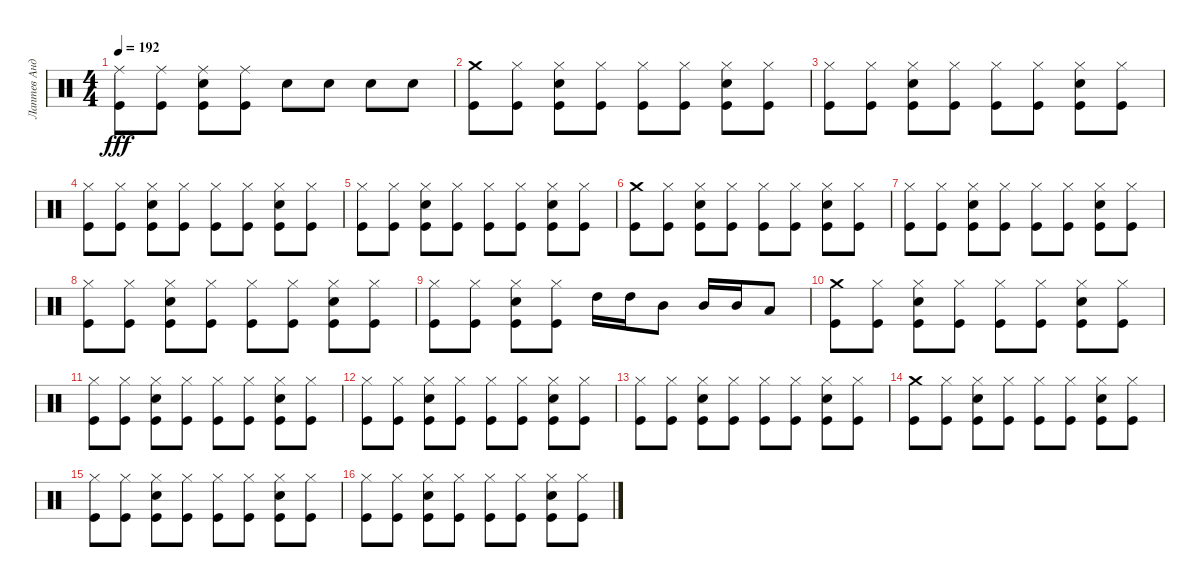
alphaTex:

\track ("Лаптев Андрей" "Лаптев Анд") {instrument percussion}
\staff {score}
\articulation defaults
\ts (4 4)
\tempo 192
\clef neutral
\ks c
("Kick (hit)" "Ride (middle)").8{dy fff} ("Kick (hit)" "Ride (middle)").8 ("Ride (middle)" "Electric Snare (hit)" "Kick (hit)").8 ("Ride (middle)" "Kick (hit)").8 "Electric Snare (hit)".8 "Electric Snare (hit)".8 "Electric Snare (hit)".8 "Electric Snare (hit)".8 |
("Kick (hit)" "Crash medium (hit)").8 ("Kick (hit)" "Hi-Hat (closed)").8 ("Electric Snare (hit)" "Hi-Hat (closed)" "Kick (hit)").8 ("Kick (hit)" "Hi-Hat (closed)").8 ("Hi-Hat (closed)" "Kick (hit)").8 ("Hi-Hat (closed)" "Kick (hit)").8 ("Kick (hit)" "Hi-Hat (closed)" "Electric Snare (hit)").8 ("Hi-Hat (closed)" "Kick (hit)").8 |
("Hi-Hat (closed)" "Kick (hit)").8 ("Kick (hit)" "Hi-Hat (closed)").8 ("Electric Snare (hit)" "Hi-Hat (closed)" "Kick (hit)").8 ("Hi-Hat (closed)" "Kick (hit)").8 ("Hi-Hat (closed)" "Kick (hit)").8 ("Hi-Hat (closed)" "Kick (hit)").8 ("Electric Snare (hit)" "Hi-Hat (closed)" "Kick (hit)").8 ("Kick (hit)" "Hi-Hat (closed)").8 |
("Kick (hit)" "Hi-Hat (closed)").8 ("Kick (hit)" "Hi-Hat (closed)").8 ("Electric Snare (hit)" "Hi-Hat (closed)" "Kick (hit)").8 ("Hi-Hat (closed)" "Kick (hit)").8 ("Hi-Hat (closed)" "Kick (hit)").8 ("Kick (hit)" "Hi-Hat (closed)").8 ("Electric Snare (hit)" "Hi-Hat (closed)" "Kick (hit)").8 ("Kick (hit)" "Hi-Hat (closed)").8 |
("Kick (hit)" "Hi-Hat (closed)").8 ("Hi-Hat (closed)" "Kick (hit)").8 ("Hi-Hat (closed)" "Electric Snare (hit)" "Kick (hit)").8 ("Hi-Hat (closed)" "Kick (hit)").8 ("Kick (hit)" "Hi-Hat (closed)").8 ("Hi-Hat (closed)" "Kick (hit)").8 ("Hi-Hat (closed)" "Kick (hit)" "Electric Snare (hit)").8 ("Hi-Hat (closed)" "Kick (hit)").8 |
("Crash medium (hit)" "Kick (hit)").8 ("Hi-Hat (closed)" "Kick (hit)").8 ("Kick (hit)" "Hi-Hat (closed)" "Electric Snare (hit)").8 ("Kick (hit)" "Hi-Hat (closed)").8 ("Kick (hit)" "Hi-Hat (closed)").8 ("Hi-Hat (closed)" "Kick (hit)").8 ("Electric Snare (hit)" "Hi-Hat (closed)" "Kick (hit)").8 ("Kick (hit)" "Hi-Hat (closed)").8 |
("Hi-Hat (closed)" "Kick (hit)").8 ("Hi-Hat (closed)" "Kick (hit)").8 ("Hi-Hat (closed)" "Kick (hit)" "Electric Snare (hit)").8 ("Kick (hit)" "Hi-Hat (closed)").8 ("Hi-Hat (closed)" "Kick (hit)").8 ("Kick (hit)" "Hi-Hat (closed)").8 ("Hi-Hat (closed)" "Electric Snare (hit)" "Kick (hit)").8 ("Kick (hit)" "Hi-Hat (closed)").8 |
("Hi-Hat (closed)" "Kick (hit)").8 ("Hi-Hat (closed)" "Kick (hit)").8 ("Electric Snare (hit)" "Kick (hit)" "Hi-Hat (closed)").8 ("Hi-Hat (closed)" "Kick (hit)").8 ("Hi-Hat (closed)" "Kick (hit)").8 ("Kick (hit)" "Hi-Hat (closed)").8 ("Kick (hit)" "Hi-Hat (closed)" "Electric Snare (hit)").8 ("Kick (hit)" "Hi-Hat (closed)").8 |
("Hi-Hat (closed)" "Kick (hit)").8 ("Kick (hit)" "Hi-Hat (closed)").8 ("Hi-Hat (closed)" "Electric Snare (hit)" "Kick (hit)").8 ("Kick (hit)" "Hi-Hat (closed)").8 "High Tom (hit)".16 "High Tom (hit)".16 "Mid Tom (hit)".8 "Mid Tom (hit)".16 "Mid Tom (hit)".16 "Low Tom (hit)".8 |
("Kick (hit)" "Crash medium (hit)").8 ("Hi-Hat (closed)" "Kick (hit)").8 ("Electric Snare (hit)" "Kick (hit)" "Hi-Hat (closed)").8 ("Kick (hit)" "Hi-Hat (closed)").8 ("Hi-Hat (closed)" "Kick (hit)").8 ("Hi-Hat (closed)" "Kick (hit)").8 ("Kick (hit)" "Electric Snare (hit)" "Hi-Hat (closed)").8 ("Kick (hit)" "Hi-Hat (closed)").8 |
("Kick (hit)" "Hi-Hat (closed)").8 ("Kick (hit)" "Hi-Hat (closed)").8 ("Kick (hit)" "Electric Snare (hit)" "Hi-Hat (closed)").8 ("Hi-Hat (closed)" "Kick (hit)").8 ("Kick (hit)" "Hi-Hat (closed)").8 ("Hi-Hat (closed)" "Kick (hit)").8 ("Hi-Hat (closed)" "Electric Snare (hit)" "Kick (hit)").8 ("Hi-Hat (closed)" "Kick (hit)").8 |
("Kick (hit)" "Hi-Hat (closed)").8 ("Kick (hit)" "Hi-Hat (closed)").8 ("Electric Snare (hit)" "Kick (hit)" "Hi-Hat (closed)").8 ("Hi-Hat (closed)" "Kick (hit)").8 ("Hi-Hat (closed)" "Kick (hit)").8 ("Hi-Hat (closed)" "Kick (hit)").8 ("Electric Snare (hit)" "Hi-Hat (closed)" "Kick (hit)").8 ("Hi-Hat (closed)" "Kick (hit)").8 |
("Kick (hit)" "Hi-Hat (closed)").8 ("Kick (hit)" "Hi-Hat (closed)").8 ("Kick (hit)" "Hi-Hat (closed)" "Electric Snare (hit)").8 ("Hi-Hat (closed)" "Kick (hit)").8 ("Hi-Hat (closed)" "Kick (hit)").8 ("Hi-Hat (closed)" "Kick (hit)").8 ("Hi-Hat (closed)" "Electric Snare (hit)" "Kick (hit)").8 ("Hi-Hat (closed)" "Kick (hit)").8 |
("Kick (hit)" "Crash medium (hit)").8 ("Kick (hit)" "Hi-Hat (closed)").8 ("Electric Snare (hit)" "Hi-Hat (closed)" "Kick (hit)").8 ("Kick (hit)" "Hi-Hat (closed)").8 ("Kick (hit)" "Hi-Hat (closed)").8 ("Hi-Hat (closed)" "Kick (hit)").8 ("Kick (hit)" "Electric Snare (hit)" "Hi-Hat (closed)").8 ("Hi-Hat (closed)" "Kick (hit)").8 |
("Kick (hit)" "Hi-Hat (closed)").8 ("Kick (hit)" "Hi-Hat (closed)").8 ("Hi-Hat (closed)" "Electric Snare (hit)" "Kick (hit)").8 ("Hi-Hat (closed)" "Kick (hit)").8 ("Kick (hit)" "Hi-Hat (closed)").8 ("Kick (hit)" "Hi-Hat (closed)").8 ("Hi-Hat (closed)" "Kick (hit)" "Electric Snare (hit)").8 ("Kick (hit)" "Hi-Hat (closed)").8 |
("Kick (hit)" "Hi-Hat (closed)").8 ("Hi-Hat (closed)" "Kick (hit)").8 ("Kick (hit)" "Hi-Hat (closed)" "Electric Snare (hit)").8 ("Hi-Hat (closed)" "Kick (hit)").8 ("Hi-Hat (closed)" "Kick (hit)").8 ("Hi-Hat (closed)" "Kick (hit)").8 ("Electric Snare (hit)" "Hi-Hat (closed)" "Kick (hit)").8 ("Kick (hit)" "Hi-Hat (closed)").8
